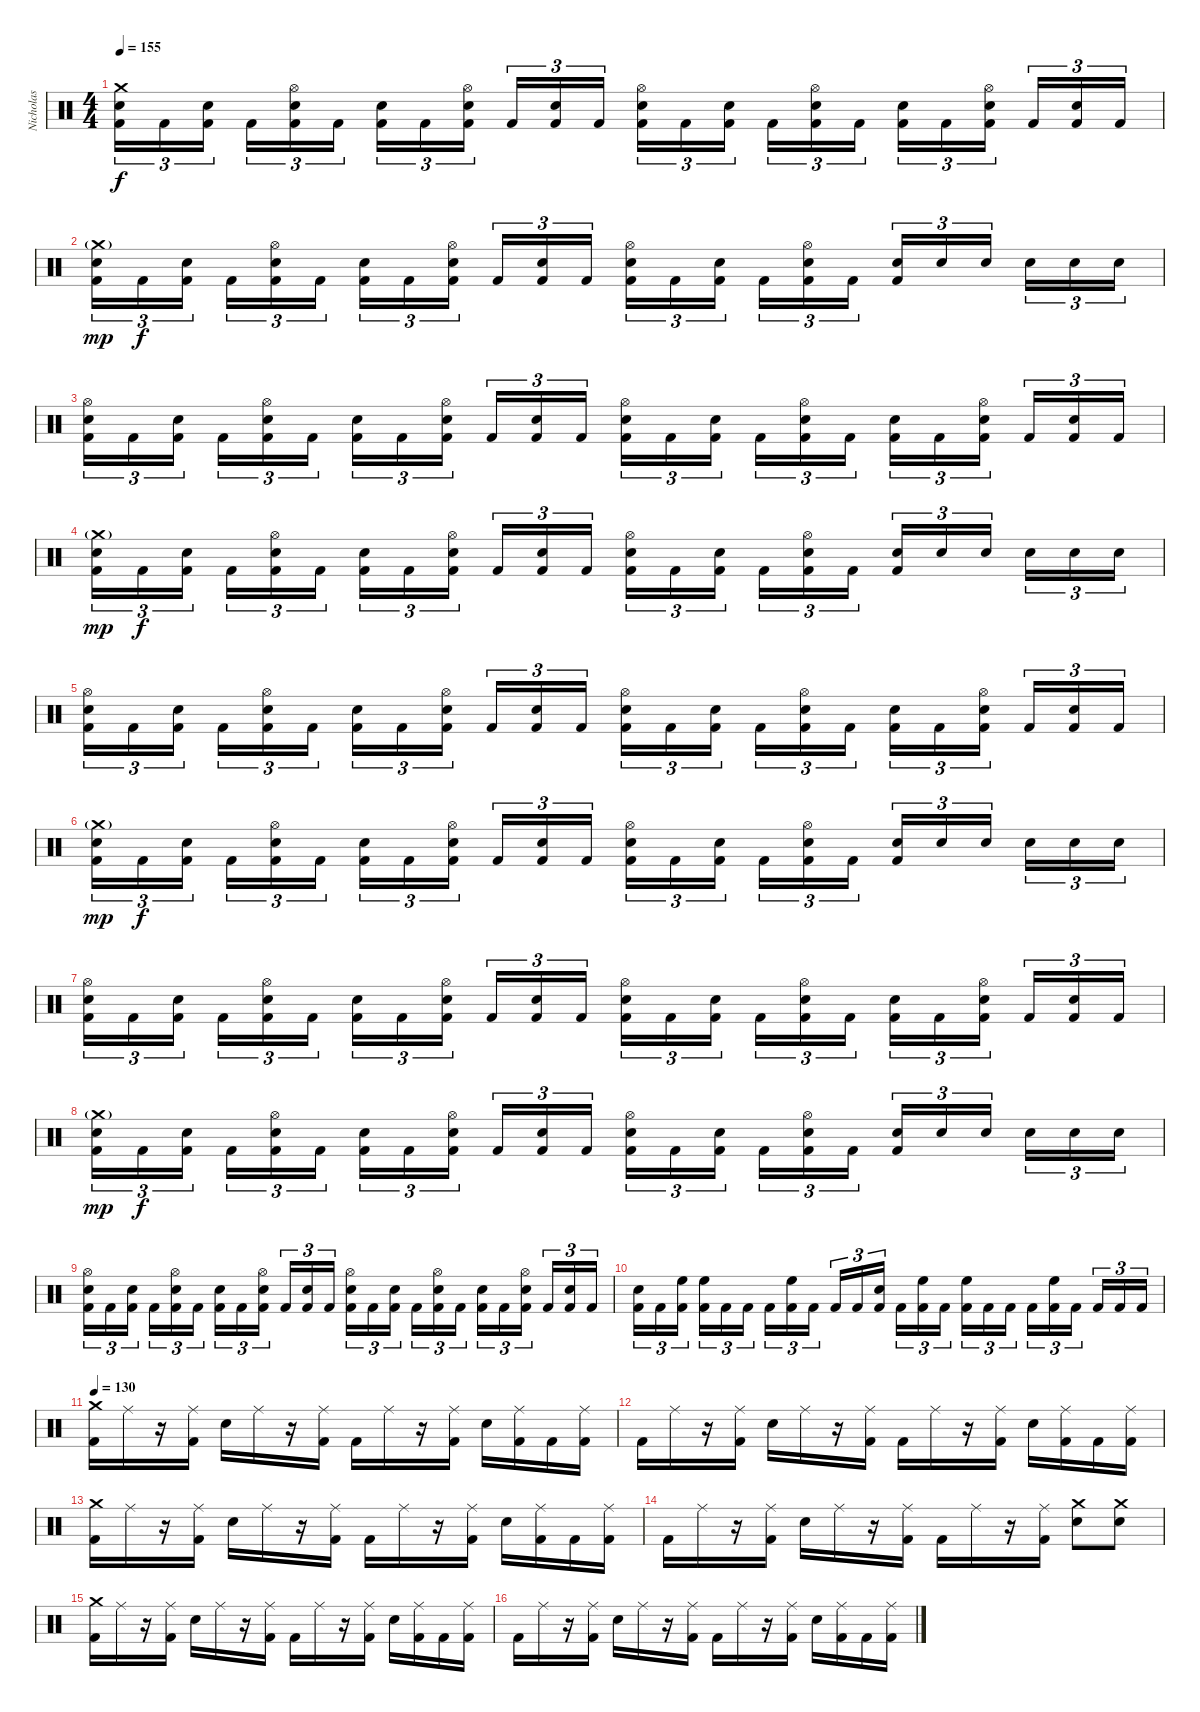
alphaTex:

\track ("Nicholas" "Nicholas") {instrument percussion}
\staff {score}
\articulation defaults
\ts (4 4)
\tempo 155
\clef neutral
\ks c
("Crash medium (hit)" "Snare (hit) 2" "Kick (hit) 2").16{tu (3 2) dy f} "Kick (hit) 2".16{tu (3 2)} ("Snare (hit) 2" "Kick (hit) 2").16{tu (3 2)} "Kick (hit) 2".16{tu (3 2)} ("Hi-Hat (open)" "Snare (hit) 2" "Kick (hit) 2").16{tu (3 2)} "Kick (hit) 2".16{tu (3 2)} ("Snare (hit) 2" "Kick (hit) 2").16{tu (3 2)} "Kick (hit) 2".16{tu (3 2)} ("Hi-Hat (open)" "Snare (hit) 2" "Kick (hit) 2").16{tu (3 2)} "Kick (hit) 2".16{tu (3 2)} ("Snare (hit) 2" "Kick (hit) 2").16{tu (3 2)} "Kick (hit) 2".16{tu (3 2)} ("Hi-Hat (open)" "Snare (hit) 2" "Kick (hit) 2").16{tu (3 2)} "Kick (hit) 2".16{tu (3 2)} ("Snare (hit) 2" "Kick (hit) 2").16{tu (3 2)} "Kick (hit) 2".16{tu (3 2)} ("Hi-Hat (open)" "Snare (hit) 2" "Kick (hit) 2").16{tu (3 2)} "Kick (hit) 2".16{tu (3 2)} ("Snare (hit) 2" "Kick (hit) 2").16{tu (3 2)} "Kick (hit) 2".16{tu (3 2)} ("Hi-Hat (open)" "Snare (hit) 2" "Kick (hit) 2").16{tu (3 2)} "Kick (hit) 2".16{tu (3 2)} ("Snare (hit) 2" "Kick (hit) 2").16{tu (3 2)} "Kick (hit) 2".16{tu (3 2)} |
("Crash medium (hit)"{g} "Snare (hit) 2" "Kick (hit) 2").16{tu (3 2) dy mp} "Kick (hit) 2".16{tu (3 2) dy f} ("Snare (hit) 2" "Kick (hit) 2").16{tu (3 2)} "Kick (hit) 2".16{tu (3 2)} ("Hi-Hat (open)" "Snare (hit) 2" "Kick (hit) 2").16{tu (3 2)} "Kick (hit) 2".16{tu (3 2)} ("Snare (hit) 2" "Kick (hit) 2").16{tu (3 2)} "Kick (hit) 2".16{tu (3 2)} ("Hi-Hat (open)" "Snare (hit) 2" "Kick (hit) 2").16{tu (3 2)} "Kick (hit) 2".16{tu (3 2)} ("Snare (hit) 2" "Kick (hit) 2").16{tu (3 2)} "Kick (hit) 2".16{tu (3 2)} ("Hi-Hat (open)" "Snare (hit) 2" "Kick (hit) 2").16{tu (3 2)} "Kick (hit) 2".16{tu (3 2)} ("Snare (hit) 2" "Kick (hit) 2").16{tu (3 2)} "Kick (hit) 2".16{tu (3 2)} ("Hi-Hat (open)" "Snare (hit) 2" "Kick (hit) 2").16{tu (3 2)} "Kick (hit) 2".16{tu (3 2)} ("Snare (hit) 2" "Kick (hit) 2").16{tu (3 2)} "Snare (hit) 2".16{tu (3 2)} "Snare (hit) 2".16{tu (3 2)} "Snare (hit) 2".16{tu (3 2)} "Snare (hit) 2".16{tu (3 2)} "Snare (hit) 2".16{tu (3 2)} |
("Hi-Hat (open)" "Snare (hit) 2" "Kick (hit) 2").16{tu (3 2)} "Kick (hit) 2".16{tu (3 2)} ("Snare (hit) 2" "Kick (hit) 2").16{tu (3 2)} "Kick (hit) 2".16{tu (3 2)} ("Hi-Hat (open)" "Snare (hit) 2" "Kick (hit) 2").16{tu (3 2)} "Kick (hit) 2".16{tu (3 2)} ("Snare (hit) 2" "Kick (hit) 2").16{tu (3 2)} "Kick (hit) 2".16{tu (3 2)} ("Hi-Hat (open)" "Snare (hit) 2" "Kick (hit) 2").16{tu (3 2)} "Kick (hit) 2".16{tu (3 2)} ("Snare (hit) 2" "Kick (hit) 2").16{tu (3 2)} "Kick (hit) 2".16{tu (3 2)} ("Hi-Hat (open)" "Snare (hit) 2" "Kick (hit) 2").16{tu (3 2)} "Kick (hit) 2".16{tu (3 2)} ("Snare (hit) 2" "Kick (hit) 2").16{tu (3 2)} "Kick (hit) 2".16{tu (3 2)} ("Hi-Hat (open)" "Snare (hit) 2" "Kick (hit) 2").16{tu (3 2)} "Kick (hit) 2".16{tu (3 2)} ("Snare (hit) 2" "Kick (hit) 2").16{tu (3 2)} "Kick (hit) 2".16{tu (3 2)} ("Hi-Hat (open)" "Snare (hit) 2" "Kick (hit) 2").16{tu (3 2)} "Kick (hit) 2".16{tu (3 2)} ("Snare (hit) 2" "Kick (hit) 2").16{tu (3 2)} "Kick (hit) 2".16{tu (3 2)} |
("Crash medium (hit)"{g} "Snare (hit) 2" "Kick (hit) 2").16{tu (3 2) dy mp} "Kick (hit) 2".16{tu (3 2) dy f} ("Snare (hit) 2" "Kick (hit) 2").16{tu (3 2)} "Kick (hit) 2".16{tu (3 2)} ("Hi-Hat (open)" "Snare (hit) 2" "Kick (hit) 2").16{tu (3 2)} "Kick (hit) 2".16{tu (3 2)} ("Snare (hit) 2" "Kick (hit) 2").16{tu (3 2)} "Kick (hit) 2".16{tu (3 2)} ("Hi-Hat (open)" "Snare (hit) 2" "Kick (hit) 2").16{tu (3 2)} "Kick (hit) 2".16{tu (3 2)} ("Snare (hit) 2" "Kick (hit) 2").16{tu (3 2)} "Kick (hit) 2".16{tu (3 2)} ("Hi-Hat (open)" "Snare (hit) 2" "Kick (hit) 2").16{tu (3 2)} "Kick (hit) 2".16{tu (3 2)} ("Snare (hit) 2" "Kick (hit) 2").16{tu (3 2)} "Kick (hit) 2".16{tu (3 2)} ("Hi-Hat (open)" "Snare (hit) 2" "Kick (hit) 2").16{tu (3 2)} "Kick (hit) 2".16{tu (3 2)} ("Snare (hit) 2" "Kick (hit) 2").16{tu (3 2)} "Snare (hit) 2".16{tu (3 2)} "Snare (hit) 2".16{tu (3 2)} "Snare (hit) 2".16{tu (3 2)} "Snare (hit) 2".16{tu (3 2)} "Snare (hit) 2".16{tu (3 2)} |
("Hi-Hat (open)" "Snare (hit) 2" "Kick (hit) 2").16{tu (3 2)} "Kick (hit) 2".16{tu (3 2)} ("Snare (hit) 2" "Kick (hit) 2").16{tu (3 2)} "Kick (hit) 2".16{tu (3 2)} ("Hi-Hat (open)" "Snare (hit) 2" "Kick (hit) 2").16{tu (3 2)} "Kick (hit) 2".16{tu (3 2)} ("Snare (hit) 2" "Kick (hit) 2").16{tu (3 2)} "Kick (hit) 2".16{tu (3 2)} ("Hi-Hat (open)" "Snare (hit) 2" "Kick (hit) 2").16{tu (3 2)} "Kick (hit) 2".16{tu (3 2)} ("Snare (hit) 2" "Kick (hit) 2").16{tu (3 2)} "Kick (hit) 2".16{tu (3 2)} ("Hi-Hat (open)" "Snare (hit) 2" "Kick (hit) 2").16{tu (3 2)} "Kick (hit) 2".16{tu (3 2)} ("Snare (hit) 2" "Kick (hit) 2").16{tu (3 2)} "Kick (hit) 2".16{tu (3 2)} ("Hi-Hat (open)" "Snare (hit) 2" "Kick (hit) 2").16{tu (3 2)} "Kick (hit) 2".16{tu (3 2)} ("Snare (hit) 2" "Kick (hit) 2").16{tu (3 2)} "Kick (hit) 2".16{tu (3 2)} ("Hi-Hat (open)" "Snare (hit) 2" "Kick (hit) 2").16{tu (3 2)} "Kick (hit) 2".16{tu (3 2)} ("Snare (hit) 2" "Kick (hit) 2").16{tu (3 2)} "Kick (hit) 2".16{tu (3 2)} |
("Crash medium (hit)"{g} "Snare (hit) 2" "Kick (hit) 2").16{tu (3 2) dy mp} "Kick (hit) 2".16{tu (3 2) dy f} ("Snare (hit) 2" "Kick (hit) 2").16{tu (3 2)} "Kick (hit) 2".16{tu (3 2)} ("Hi-Hat (open)" "Snare (hit) 2" "Kick (hit) 2").16{tu (3 2)} "Kick (hit) 2".16{tu (3 2)} ("Snare (hit) 2" "Kick (hit) 2").16{tu (3 2)} "Kick (hit) 2".16{tu (3 2)} ("Hi-Hat (open)" "Snare (hit) 2" "Kick (hit) 2").16{tu (3 2)} "Kick (hit) 2".16{tu (3 2)} ("Snare (hit) 2" "Kick (hit) 2").16{tu (3 2)} "Kick (hit) 2".16{tu (3 2)} ("Hi-Hat (open)" "Snare (hit) 2" "Kick (hit) 2").16{tu (3 2)} "Kick (hit) 2".16{tu (3 2)} ("Snare (hit) 2" "Kick (hit) 2").16{tu (3 2)} "Kick (hit) 2".16{tu (3 2)} ("Hi-Hat (open)" "Snare (hit) 2" "Kick (hit) 2").16{tu (3 2)} "Kick (hit) 2".16{tu (3 2)} ("Snare (hit) 2" "Kick (hit) 2").16{tu (3 2)} "Snare (hit) 2".16{tu (3 2)} "Snare (hit) 2".16{tu (3 2)} "Snare (hit) 2".16{tu (3 2)} "Snare (hit) 2".16{tu (3 2)} "Snare (hit) 2".16{tu (3 2)} |
("Hi-Hat (open)" "Snare (hit) 2" "Kick (hit) 2").16{tu (3 2)} "Kick (hit) 2".16{tu (3 2)} ("Snare (hit) 2" "Kick (hit) 2").16{tu (3 2)} "Kick (hit) 2".16{tu (3 2)} ("Hi-Hat (open)" "Snare (hit) 2" "Kick (hit) 2").16{tu (3 2)} "Kick (hit) 2".16{tu (3 2)} ("Snare (hit) 2" "Kick (hit) 2").16{tu (3 2)} "Kick (hit) 2".16{tu (3 2)} ("Hi-Hat (open)" "Snare (hit) 2" "Kick (hit) 2").16{tu (3 2)} "Kick (hit) 2".16{tu (3 2)} ("Snare (hit) 2" "Kick (hit) 2").16{tu (3 2)} "Kick (hit) 2".16{tu (3 2)} ("Hi-Hat (open)" "Snare (hit) 2" "Kick (hit) 2").16{tu (3 2)} "Kick (hit) 2".16{tu (3 2)} ("Snare (hit) 2" "Kick (hit) 2").16{tu (3 2)} "Kick (hit) 2".16{tu (3 2)} ("Hi-Hat (open)" "Snare (hit) 2" "Kick (hit) 2").16{tu (3 2)} "Kick (hit) 2".16{tu (3 2)} ("Snare (hit) 2" "Kick (hit) 2").16{tu (3 2)} "Kick (hit) 2".16{tu (3 2)} ("Hi-Hat (open)" "Snare (hit) 2" "Kick (hit) 2").16{tu (3 2)} "Kick (hit) 2".16{tu (3 2)} ("Snare (hit) 2" "Kick (hit) 2").16{tu (3 2)} "Kick (hit) 2".16{tu (3 2)} |
("Crash medium (hit)"{g} "Snare (hit) 2" "Kick (hit) 2").16{tu (3 2) dy mp} "Kick (hit) 2".16{tu (3 2) dy f} ("Snare (hit) 2" "Kick (hit) 2").16{tu (3 2)} "Kick (hit) 2".16{tu (3 2)} ("Hi-Hat (open)" "Snare (hit) 2" "Kick (hit) 2").16{tu (3 2)} "Kick (hit) 2".16{tu (3 2)} ("Snare (hit) 2" "Kick (hit) 2").16{tu (3 2)} "Kick (hit) 2".16{tu (3 2)} ("Hi-Hat (open)" "Snare (hit) 2" "Kick (hit) 2").16{tu (3 2)} "Kick (hit) 2".16{tu (3 2)} ("Snare (hit) 2" "Kick (hit) 2").16{tu (3 2)} "Kick (hit) 2".16{tu (3 2)} ("Hi-Hat (open)" "Snare (hit) 2" "Kick (hit) 2").16{tu (3 2)} "Kick (hit) 2".16{tu (3 2)} ("Snare (hit) 2" "Kick (hit) 2").16{tu (3 2)} "Kick (hit) 2".16{tu (3 2)} ("Hi-Hat (open)" "Snare (hit) 2" "Kick (hit) 2").16{tu (3 2)} "Kick (hit) 2".16{tu (3 2)} ("Snare (hit) 2" "Kick (hit) 2").16{tu (3 2)} "Snare (hit) 2".16{tu (3 2)} "Snare (hit) 2".16{tu (3 2)} "Snare (hit) 2".16{tu (3 2)} "Snare (hit) 2".16{tu (3 2)} "Snare (hit) 2".16{tu (3 2)} |
("Hi-Hat (open)" "Snare (hit) 2" "Kick (hit) 2").16{tu (3 2)} "Kick (hit) 2".16{tu (3 2)} ("Snare (hit) 2" "Kick (hit) 2").16{tu (3 2)} "Kick (hit) 2".16{tu (3 2)} ("Hi-Hat (open)" "Snare (hit) 2" "Kick (hit) 2").16{tu (3 2)} "Kick (hit) 2".16{tu (3 2)} ("Snare (hit) 2" "Kick (hit) 2").16{tu (3 2)} "Kick (hit) 2".16{tu (3 2)} ("Hi-Hat (open)" "Snare (hit) 2" "Kick (hit) 2").16{tu (3 2)} "Kick (hit) 2".16{tu (3 2)} ("Snare (hit) 2" "Kick (hit) 2").16{tu (3 2)} "Kick (hit) 2".16{tu (3 2)} ("Hi-Hat (open)" "Snare (hit) 2" "Kick (hit) 2").16{tu (3 2)} "Kick (hit) 2".16{tu (3 2)} ("Snare (hit) 2" "Kick (hit) 2").16{tu (3 2)} "Kick (hit) 2".16{tu (3 2)} ("Hi-Hat (open)" "Snare (hit) 2" "Kick (hit) 2").16{tu (3 2)} "Kick (hit) 2".16{tu (3 2)} ("Snare (hit) 2" "Kick (hit) 2").16{tu (3 2)} "Kick (hit) 2".16{tu (3 2)} ("Hi-Hat (open)" "Snare (hit) 2" "Kick (hit) 2").16{tu (3 2)} "Kick (hit) 2".16{tu (3 2)} ("Snare (hit) 2" "Kick (hit) 2").16{tu (3 2)} "Kick (hit) 2".16{tu (3 2)} |
("Snare (hit) 2" "Kick (hit) 2").16{tu (3 2)} "Kick (hit) 2".16{tu (3 2)} ("High Floor Tom (hit)" "Kick (hit) 2").16{tu (3 2)} ("High Floor Tom (hit)" "Kick (hit) 2").16{tu (3 2)} "Kick (hit) 2".16{tu (3 2)} "Kick (hit) 2".16{tu (3 2)} "Kick (hit) 2".16{tu (3 2)} ("High Floor Tom (hit)" "Kick (hit) 2").16{tu (3 2)} "Kick (hit) 2".16{tu (3 2)} "Kick (hit) 2".16{tu (3 2)} "Kick (hit) 2".16{tu (3 2)} ("Snare (hit) 2" "Kick (hit) 2").16{tu (3 2)} "Kick (hit) 2".16{tu (3 2)} ("High Floor Tom (hit)" "Kick (hit) 2").16{tu (3 2)} "Kick (hit) 2".16{tu (3 2)} ("High Floor Tom (hit)" "Kick (hit) 2").16{tu (3 2)} "Kick (hit) 2".16{tu (3 2)} "Kick (hit) 2".16{tu (3 2)} "Kick (hit) 2".16{tu (3 2)} ("High Floor Tom (hit)" "Kick (hit) 2").16{tu (3 2)} "Kick (hit) 2".16{tu (3 2)} "Kick (hit) 2".16{tu (3 2)} "Kick (hit) 2".16{tu (3 2)} "Kick (hit) 2".16{tu (3 2)} |
\tempo 130
("Crash medium (hit)" "Kick (hit) 2").16 "Ride (middle)".16 r.16 ("Ride (middle)" "Kick (hit) 2").16 "Snare (hit) 2".16 "Ride (middle)".16 r.16 ("Ride (middle)" "Kick (hit) 2").16 "Kick (hit) 2".16 "Ride (middle)".16 r.16 ("Ride (middle)" "Kick (hit) 2").16 "Snare (hit) 2".16 ("Ride (middle)" "Kick (hit) 2").16 "Kick (hit) 2".16 ("Ride (middle)" "Kick (hit) 2").16 |
"Kick (hit) 2".16 "Ride (middle)".16 r.16 ("Ride (middle)" "Kick (hit) 2").16 "Snare (hit) 2".16 "Ride (middle)".16 r.16 ("Ride (middle)" "Kick (hit) 2").16 "Kick (hit) 2".16 "Ride (middle)".16 r.16 ("Ride (middle)" "Kick (hit) 2").16 "Snare (hit) 2".16 ("Ride (middle)" "Kick (hit) 2").16 "Kick (hit) 2".16 ("Ride (middle)" "Kick (hit) 2").16 |
("Crash medium (hit)" "Kick (hit) 2").16 "Ride (middle)".16 r.16 ("Ride (middle)" "Kick (hit) 2").16 "Snare (hit) 2".16 "Ride (middle)".16 r.16 ("Ride (middle)" "Kick (hit) 2").16 "Kick (hit) 2".16 "Ride (middle)".16 r.16 ("Ride (middle)" "Kick (hit) 2").16 "Snare (hit) 2".16 ("Ride (middle)" "Kick (hit) 2").16 "Kick (hit) 2".16 ("Ride (middle)" "Kick (hit) 2").16 |
"Kick (hit) 2".16 "Ride (middle)".16 r.16 ("Ride (middle)" "Kick (hit) 2").16 "Snare (hit) 2".16 "Ride (middle)".16 r.16 ("Ride (middle)" "Kick (hit) 2").16 "Kick (hit) 2".16 "Ride (middle)".16 r.16 ("Ride (middle)" "Kick (hit) 2").16 ("Crash medium (hit)" "Snare (hit) 2").8 ("Crash medium (hit)" "Snare (hit) 2").8 |
("Crash medium (hit)" "Kick (hit) 2").16 "Ride (middle)".16 r.16 ("Ride (middle)" "Kick (hit) 2").16 "Snare (hit) 2".16 "Ride (middle)".16 r.16 ("Ride (middle)" "Kick (hit) 2").16 "Kick (hit) 2".16 "Ride (middle)".16 r.16 ("Ride (middle)" "Kick (hit) 2").16 "Snare (hit) 2".16 ("Ride (middle)" "Kick (hit) 2").16 "Kick (hit) 2".16 ("Ride (middle)" "Kick (hit) 2").16 |
"Kick (hit) 2".16 "Ride (middle)".16 r.16 ("Ride (middle)" "Kick (hit) 2").16 "Snare (hit) 2".16 "Ride (middle)".16 r.16 ("Ride (middle)" "Kick (hit) 2").16 "Kick (hit) 2".16 "Ride (middle)".16 r.16 ("Ride (middle)" "Kick (hit) 2").16 "Snare (hit) 2".16 ("Ride (middle)" "Kick (hit) 2").16 "Kick (hit) 2".16 ("Ride (middle)" "Kick (hit) 2").16
